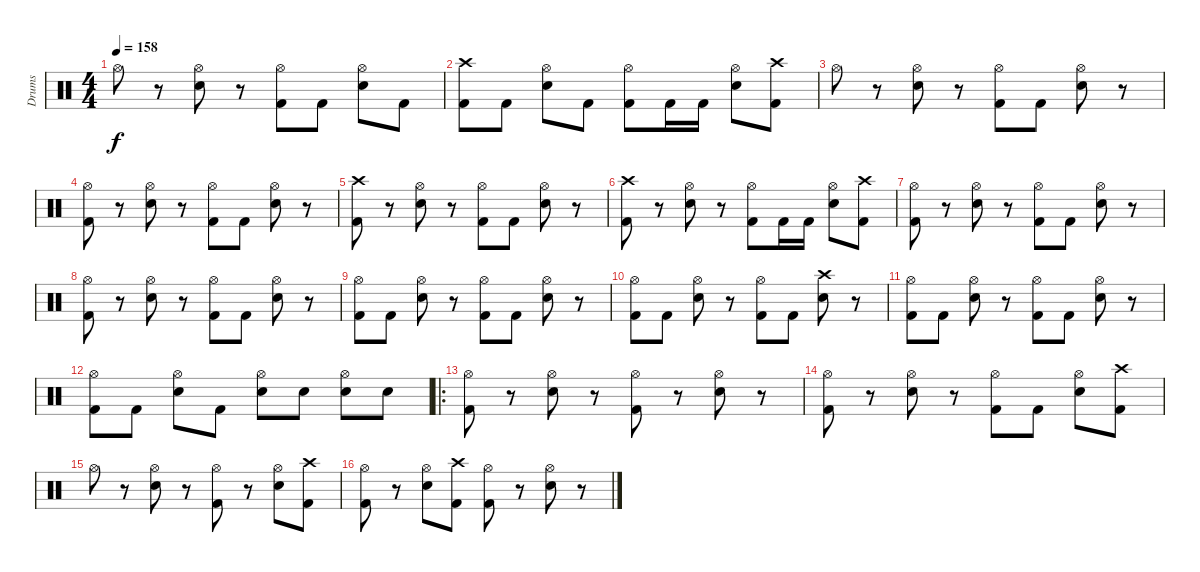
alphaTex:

\track ("Drums" "Drums") {instrument percussion}
\staff {score}
\articulation defaults
\ts (4 4)
\tempo 158
\clef neutral
\ks c "Hi-Hat (open)".8{dy f}
r.8 ("Hi-Hat (open)" "Snare (hit) 2").8 r.8 ("Hi-Hat (open)" "Kick (hit) 2").8 "Kick (hit) 2".8 ("Hi-Hat (open)" "Snare (hit) 2").8 "Kick (hit) 2".8 |
("Crash high (hit)" "Kick (hit) 2").8 "Kick (hit) 2".8 ("Hi-Hat (open)" "Snare (hit) 2").8 "Kick (hit) 2".8 ("Hi-Hat (open)" "Kick (hit) 2").8 "Kick (hit) 2".16 "Kick (hit) 2".16 ("Hi-Hat (open)" "Snare (hit) 2").8 ("Crash high (hit)" "Kick (hit) 2").8 |
"Hi-Hat (open)".8 r.8 ("Hi-Hat (open)" "Snare (hit) 2").8 r.8 ("Hi-Hat (open)" "Kick (hit) 2").8 "Kick (hit) 2".8 ("Hi-Hat (open)" "Snare (hit) 2").8 r.8 |
("Hi-Hat (open)" "Kick (hit) 2").8 r.8 ("Hi-Hat (open)" "Snare (hit) 2").8 r.8 ("Hi-Hat (open)" "Kick (hit) 2").8 "Kick (hit) 2".8 ("Hi-Hat (open)" "Snare (hit) 2").8 r.8 |
("Crash high (hit)" "Kick (hit) 2").8 r.8 ("Hi-Hat (open)" "Snare (hit) 2").8 r.8 ("Hi-Hat (open)" "Kick (hit) 2").8 "Kick (hit) 2".8 ("Hi-Hat (open)" "Snare (hit) 2").8 r.8 |
("Crash high (hit)" "Kick (hit) 2").8 r.8 ("Hi-Hat (open)" "Snare (hit) 2").8 r.8 ("Hi-Hat (open)" "Kick (hit) 2").8 "Kick (hit) 2".16 "Kick (hit) 2".16 ("Hi-Hat (open)" "Snare (hit) 2").8 ("Crash high (hit)" "Kick (hit) 2").8 |
("Hi-Hat (open)" "Kick (hit) 2").8 r.8 ("Hi-Hat (open)" "Snare (hit) 2").8 r.8 ("Hi-Hat (open)" "Kick (hit) 2").8 "Kick (hit) 2".8 ("Hi-Hat (open)" "Snare (hit) 2").8 r.8 |
("Hi-Hat (open)" "Kick (hit) 2").8 r.8 ("Hi-Hat (open)" "Snare (hit) 2").8 r.8 ("Hi-Hat (open)" "Kick (hit) 2").8 "Kick (hit) 2".8 ("Hi-Hat (open)" "Snare (hit) 2").8 r.8 |
("Hi-Hat (open)" "Kick (hit) 2").8 "Kick (hit) 2".8 ("Hi-Hat (open)" "Snare (hit) 2").8 r.8 ("Hi-Hat (open)" "Kick (hit) 2").8 "Kick (hit) 2".8 ("Hi-Hat (open)" "Snare (hit) 2").8 r.8 |
("Hi-Hat (open)" "Kick (hit) 2").8 "Kick (hit) 2".8 ("Hi-Hat (open)" "Snare (hit) 2").8 r.8 ("Hi-Hat (open)" "Kick (hit) 2").8 "Kick (hit) 2".8 ("Crash high (hit)" "Snare (hit) 2").8 r.8 |
("Hi-Hat (open)" "Kick (hit) 2").8 "Kick (hit) 2".8 ("Hi-Hat (open)" "Snare (hit) 2").8 r.8 ("Hi-Hat (open)" "Kick (hit) 2").8 "Kick (hit) 2".8 ("Hi-Hat (open)" "Snare (hit) 2").8 r.8 |
("Hi-Hat (open)" "Kick (hit) 2").8 "Kick (hit) 2".8 ("Hi-Hat (open)" "Snare (hit) 2").8 "Kick (hit) 2".8 ("Hi-Hat (open)" "Snare (hit) 2").8 "Snare (hit) 2".8 ("Hi-Hat (open)" "Snare (hit) 2").8 "Snare (hit) 2".8 |
\ro
("Hi-Hat (open)" "Kick (hit) 2").8 r.8 ("Hi-Hat (open)" "Snare (hit) 2").8 r.8 ("Hi-Hat (open)" "Kick (hit) 2").8 r.8 ("Hi-Hat (open)" "Snare (hit) 2").8 r.8 |
("Hi-Hat (open)" "Kick (hit) 2").8 r.8 ("Hi-Hat (open)" "Snare (hit) 2").8 r.8 ("Hi-Hat (open)" "Kick (hit) 2").8 "Kick (hit) 2".8 ("Hi-Hat (open)" "Snare (hit) 2").8 ("Crash high (hit)" "Kick (hit) 2").8 |
"Hi-Hat (open)".8 r.8 ("Hi-Hat (open)" "Snare (hit) 2").8 r.8 ("Hi-Hat (open)" "Kick (hit) 2").8 r.8 ("Hi-Hat (open)" "Snare (hit) 2").8 ("Crash high (hit)" "Kick (hit) 2").8 |
("Hi-Hat (open)" "Kick (hit) 2").8 r.8 ("Hi-Hat (open)" "Snare (hit) 2").8 ("Crash high (hit)" "Kick (hit) 2").8 ("Hi-Hat (open)" "Kick (hit) 2").8 r.8 ("Hi-Hat (open)" "Snare (hit) 2").8 r.8
